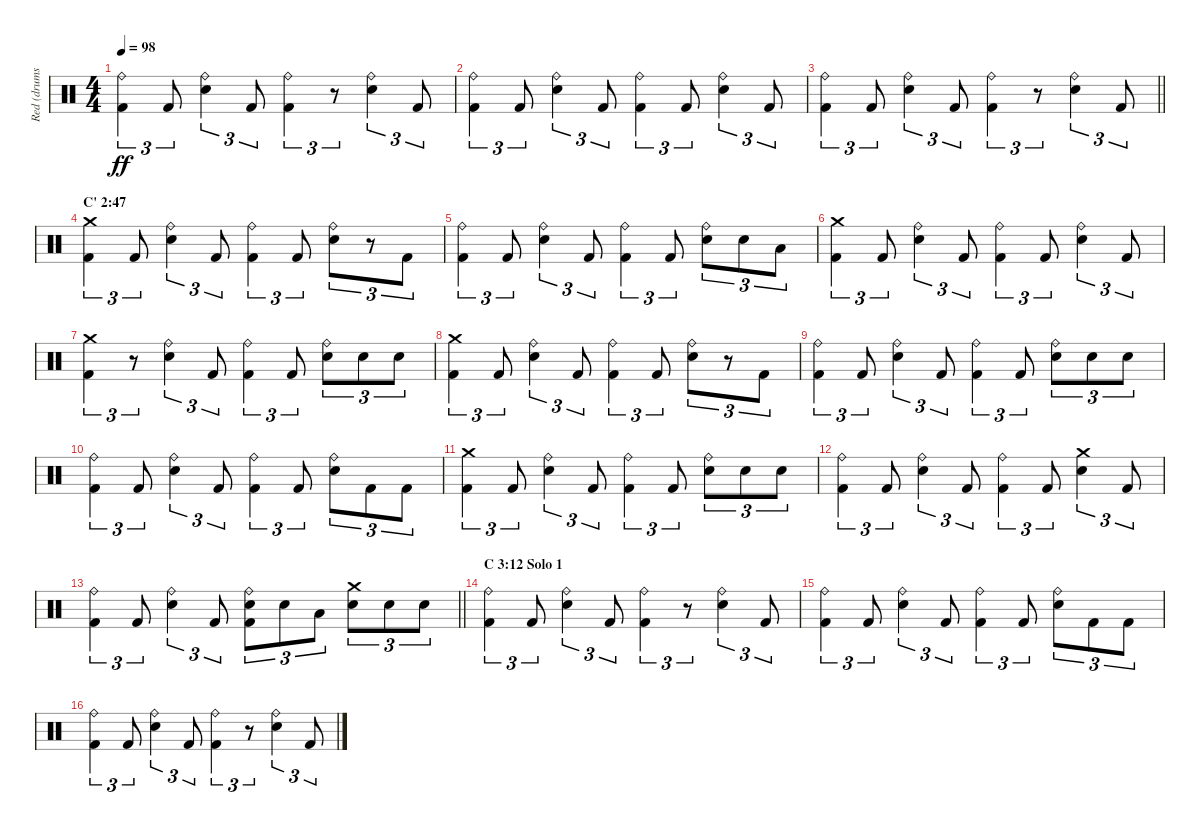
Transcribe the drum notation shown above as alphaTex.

\track ("Red (drums)" "Red (drums") {instrument percussion}
\staff {score}
\articulation defaults
\ts (4 4)
\tempo 98
\clef neutral
\ks c
("Ride (bell)" "Kick (hit) 2").4{tu (3 2) dy ff} "Kick (hit) 2".8{tu (3 2)} ("Ride (bell)" "Electric Snare (hit)").4{tu (3 2)} "Kick (hit) 2".8{tu (3 2)} ("Ride (bell)" "Kick (hit) 2").4{tu (3 2)} r.8{tu (3 2)} ("Ride (bell)" "Electric Snare (hit)").4{tu (3 2)} "Kick (hit) 2".8{tu (3 2)} |
("Ride (bell)" "Kick (hit) 2").4{tu (3 2)} "Kick (hit) 2".8{tu (3 2)} ("Ride (bell)" "Electric Snare (hit)").4{tu (3 2)} "Kick (hit) 2".8{tu (3 2)} ("Ride (bell)" "Kick (hit) 2").4{tu (3 2)} "Kick (hit) 2".8{tu (3 2)} ("Ride (bell)" "Electric Snare (hit)").4{tu (3 2)} "Kick (hit) 2".8{tu (3 2)} |
\barLineRight lightlight
("Ride (bell)" "Kick (hit) 2").4{tu (3 2)} "Kick (hit) 2".8{tu (3 2)} ("Ride (bell)" "Electric Snare (hit)").4{tu (3 2)} "Kick (hit) 2".8{tu (3 2)} ("Ride (bell)" "Kick (hit) 2").4{tu (3 2)} r.8{tu (3 2)} ("Ride (bell)" "Electric Snare (hit)").4{tu (3 2)} "Kick (hit) 2".8{tu (3 2)} |
\section ("" "C' 2:47")
("Crash medium (hit)" "Kick (hit) 2").4{tu (3 2)} "Kick (hit) 2".8{tu (3 2)} ("Ride (bell)" "Electric Snare (hit)").4{tu (3 2)} "Kick (hit) 2".8{tu (3 2)} ("Ride (bell)" "Kick (hit) 2").4{tu (3 2)} "Kick (hit) 2".8{tu (3 2)} ("Ride (bell)" "Electric Snare (hit)").8{tu (3 2)} r.8{tu (3 2)} "Kick (hit) 2".8{tu (3 2)} |
("Ride (bell)" "Kick (hit) 2").4{tu (3 2)} "Kick (hit) 2".8{tu (3 2)} ("Ride (bell)" "Electric Snare (hit)").4{tu (3 2)} "Kick (hit) 2".8{tu (3 2)} ("Ride (bell)" "Kick (hit) 2").4{tu (3 2)} "Kick (hit) 2".8{tu (3 2)} ("Ride (bell)" "Electric Snare (hit)").8{tu (3 2)} "Electric Snare (hit)".8{tu (3 2)} "Low Floor Tom (hit)".8{tu (3 2)} |
("Crash medium (hit)" "Kick (hit) 2").4{tu (3 2)} "Kick (hit) 2".8{tu (3 2)} ("Ride (bell)" "Electric Snare (hit)").4{tu (3 2)} "Kick (hit) 2".8{tu (3 2)} ("Ride (bell)" "Kick (hit) 2").4{tu (3 2)} "Kick (hit) 2".8{tu (3 2)} ("Ride (bell)" "Electric Snare (hit)").4{tu (3 2)} "Kick (hit) 2".8{tu (3 2)} |
("Crash medium (hit)" "Kick (hit) 2").4{tu (3 2)} r.8{tu (3 2)} ("Ride (bell)" "Electric Snare (hit)").4{tu (3 2)} "Kick (hit) 2".8{tu (3 2)} ("Ride (bell)" "Kick (hit) 2").4{tu (3 2)} "Kick (hit) 2".8{tu (3 2)} ("Ride (bell)" "Electric Snare (hit)").8{tu (3 2)} "Electric Snare (hit)".8{tu (3 2)} "Electric Snare (hit)".8{tu (3 2)} |
("Crash medium (hit)" "Kick (hit) 2").4{tu (3 2)} "Kick (hit) 2".8{tu (3 2)} ("Ride (bell)" "Electric Snare (hit)").4{tu (3 2)} "Kick (hit) 2".8{tu (3 2)} ("Ride (bell)" "Kick (hit) 2").4{tu (3 2)} "Kick (hit) 2".8{tu (3 2)} ("Ride (bell)" "Electric Snare (hit)").8{tu (3 2)} r.8{tu (3 2)} "Kick (hit) 2".8{tu (3 2)} |
("Ride (bell)" "Kick (hit) 2").4{tu (3 2)} "Kick (hit) 2".8{tu (3 2)} ("Ride (bell)" "Electric Snare (hit)").4{tu (3 2)} "Kick (hit) 2".8{tu (3 2)} ("Ride (bell)" "Kick (hit) 2").4{tu (3 2)} "Kick (hit) 2".8{tu (3 2)} ("Ride (bell)" "Electric Snare (hit)").8{tu (3 2)} "Electric Snare (hit)".8{tu (3 2)} "Electric Snare (hit)".8{tu (3 2)} |
("Ride (bell)" "Kick (hit) 2").4{tu (3 2)} "Kick (hit) 2".8{tu (3 2)} ("Ride (bell)" "Electric Snare (hit)").4{tu (3 2)} "Kick (hit) 2".8{tu (3 2)} ("Ride (bell)" "Kick (hit) 2").4{tu (3 2)} "Kick (hit) 2".8{tu (3 2)} ("Ride (bell)" "Electric Snare (hit)").8{tu (3 2)} "Kick (hit) 2".8{tu (3 2)} "Kick (hit) 2".8{tu (3 2)} |
("Crash medium (hit)" "Kick (hit) 2").4{tu (3 2)} "Kick (hit) 2".8{tu (3 2)} ("Ride (bell)" "Electric Snare (hit)").4{tu (3 2)} "Kick (hit) 2".8{tu (3 2)} ("Ride (bell)" "Kick (hit) 2").4{tu (3 2)} "Kick (hit) 2".8{tu (3 2)} ("Ride (bell)" "Electric Snare (hit)").8{tu (3 2)} "Electric Snare (hit)".8{tu (3 2)} "Electric Snare (hit)".8{tu (3 2)} |
("Ride (bell)" "Kick (hit) 2").4{tu (3 2)} "Kick (hit) 2".8{tu (3 2)} ("Ride (bell)" "Electric Snare (hit)").4{tu (3 2)} "Kick (hit) 2".8{tu (3 2)} ("Ride (bell)" "Kick (hit) 2").4{tu (3 2)} "Kick (hit) 2".8{tu (3 2)} ("Crash medium (hit)" "Electric Snare (hit)").4{tu (3 2)} "Kick (hit) 2".8{tu (3 2)} |
\barLineRight lightlight
("Ride (bell)" "Kick (hit) 2").4{tu (3 2)} "Kick (hit) 2".8{tu (3 2)} ("Ride (bell)" "Electric Snare (hit)").4{tu (3 2)} "Kick (hit) 2".8{tu (3 2)} ("Ride (bell)" "Electric Snare (hit)" "Kick (hit) 2").8{tu (3 2)} "Electric Snare (hit)".8{tu (3 2)} "Low Tom (hit)".8{tu (3 2)} ("Crash medium (hit)" "Electric Snare (hit)").8{tu (3 2)} "Electric Snare (hit)".8{tu (3 2)} "Electric Snare (hit)".8{tu (3 2)} |
\section ("" "C 3:12 Solo 1")
("Ride (bell)" "Kick (hit) 2").4{tu (3 2)} "Kick (hit) 2".8{tu (3 2)} ("Ride (bell)" "Electric Snare (hit)").4{tu (3 2)} "Kick (hit) 2".8{tu (3 2)} ("Ride (bell)" "Kick (hit) 2").4{tu (3 2)} r.8{tu (3 2)} ("Ride (bell)" "Electric Snare (hit)").4{tu (3 2)} "Kick (hit) 2".8{tu (3 2)} |
("Ride (bell)" "Kick (hit) 2").4{tu (3 2)} "Kick (hit) 2".8{tu (3 2)} ("Ride (bell)" "Electric Snare (hit)").4{tu (3 2)} "Kick (hit) 2".8{tu (3 2)} ("Ride (bell)" "Kick (hit) 2").4{tu (3 2)} "Kick (hit) 2".8{tu (3 2)} ("Ride (bell)" "Electric Snare (hit)").8{tu (3 2)} "Kick (hit) 2".8{tu (3 2)} "Kick (hit) 2".8{tu (3 2)} |
("Ride (bell)" "Kick (hit) 2").4{tu (3 2)} "Kick (hit) 2".8{tu (3 2)} ("Ride (bell)" "Electric Snare (hit)").4{tu (3 2)} "Kick (hit) 2".8{tu (3 2)} ("Ride (bell)" "Kick (hit) 2").4{tu (3 2)} r.8{tu (3 2)} ("Ride (bell)" "Electric Snare (hit)").4{tu (3 2)} "Kick (hit) 2".8{tu (3 2)}
